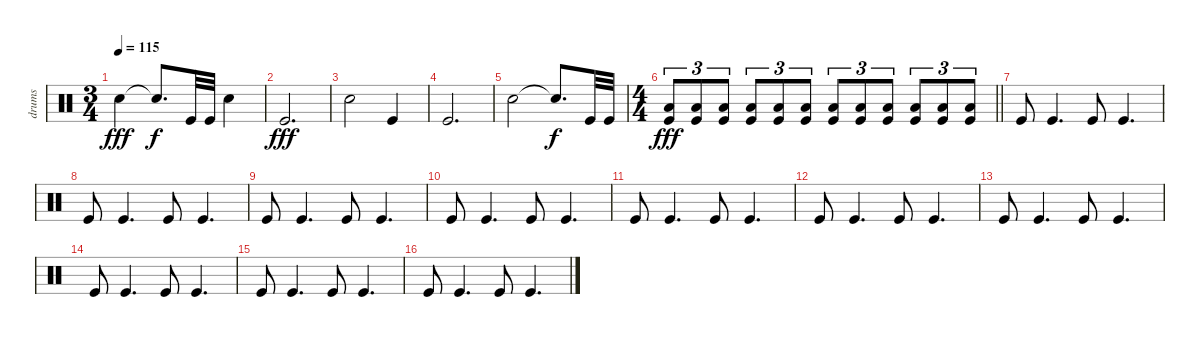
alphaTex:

\track ("drums" "drums") {instrument percussion}
\staff {score}
\articulation defaults
\ts (3 4)
\tempo 115
\clef neutral
\ks c "Electric Snare (hit)".4{dy fff} "Electric Snare (hit)"{t}.8{d dy f} "Kick (hit)".32 "Kick (hit)".32 "Electric Snare (hit)".4
|
"Kick (hit)".2{d dy fff} |
"Electric Snare (hit)".2 "Kick (hit)".4 |
"Kick (hit)".2{d} |
"Electric Snare (hit)".2 "Electric Snare (hit)"{t}.8{d dy f} "Kick (hit)".32 "Kick (hit)".32 |
\ts (4 4)
\barLineRight lightlight
("Low Floor Tom (hit)" "Kick (hit)").8{tu (3 2) dy fff} ("Low Floor Tom (hit)" "Kick (hit)").8{tu (3 2)} ("Low Floor Tom (hit)" "Kick (hit)").8{tu (3 2)} ("Low Floor Tom (hit)" "Kick (hit)").8{tu (3 2)} ("Low Floor Tom (hit)" "Kick (hit)").8{tu (3 2)} ("Low Floor Tom (hit)" "Kick (hit)").8{tu (3 2)} ("Low Floor Tom (hit)" "Kick (hit)").8{tu (3 2)} ("Low Floor Tom (hit)" "Kick (hit)").8{tu (3 2)} ("Low Floor Tom (hit)" "Kick (hit)").8{tu (3 2)} ("Low Floor Tom (hit)" "Kick (hit)").8{tu (3 2)} ("Low Floor Tom (hit)" "Kick (hit)").8{tu (3 2)} ("Low Floor Tom (hit)" "Kick (hit)").8{tu (3 2)} |
\section ("" "")
"Kick (hit)".8 "Kick (hit)".4{d} "Kick (hit)".8 "Kick (hit)".4{d} |
"Kick (hit)".8 "Kick (hit)".4{d} "Kick (hit)".8 "Kick (hit)".4{d} |
"Kick (hit)".8 "Kick (hit)".4{d} "Kick (hit)".8 "Kick (hit)".4{d} |
"Kick (hit)".8 "Kick (hit)".4{d} "Kick (hit)".8 "Kick (hit)".4{d} |
"Kick (hit)".8 "Kick (hit)".4{d} "Kick (hit)".8 "Kick (hit)".4{d} |
"Kick (hit)".8 "Kick (hit)".4{d} "Kick (hit)".8 "Kick (hit)".4{d} |
"Kick (hit)".8 "Kick (hit)".4{d} "Kick (hit)".8 "Kick (hit)".4{d} |
"Kick (hit)".8 "Kick (hit)".4{d} "Kick (hit)".8 "Kick (hit)".4{d} |
"Kick (hit)".8 "Kick (hit)".4{d} "Kick (hit)".8 "Kick (hit)".4{d} |
"Kick (hit)".8 "Kick (hit)".4{d} "Kick (hit)".8 "Kick (hit)".4{d}
